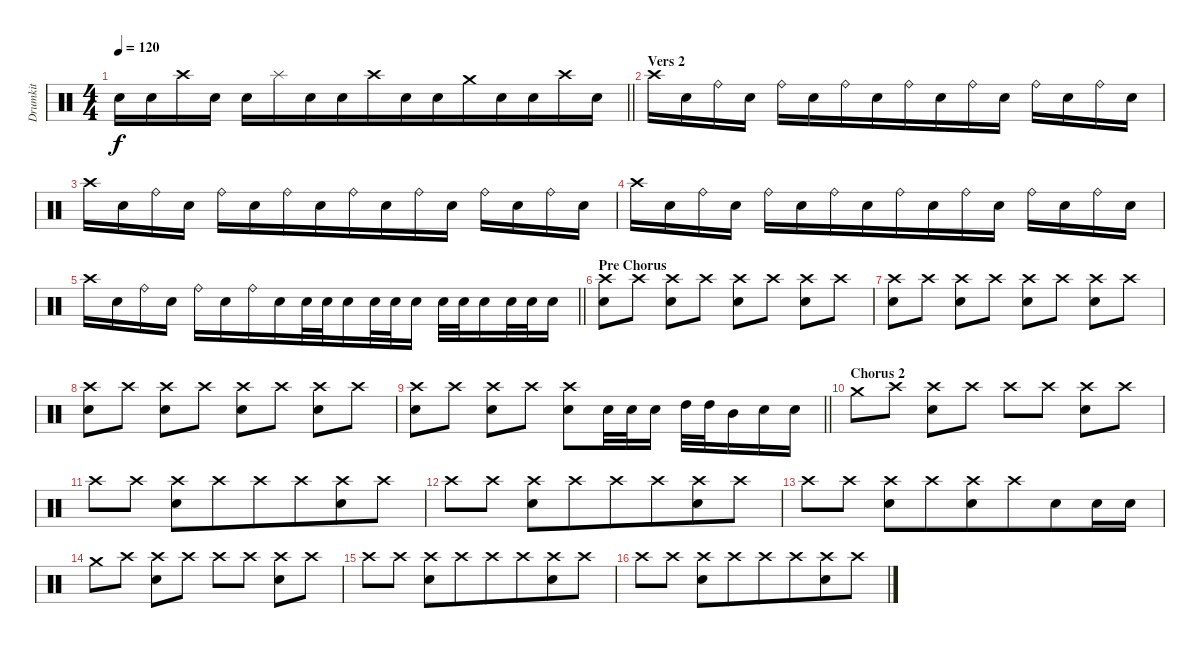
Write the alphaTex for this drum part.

\track ("Drumkit" "Drumkit") {instrument percussion}
\staff {score}
\articulation defaults
\ts (4 4)
\tempo 120
\clef neutral
\barLineRight lightlight
\ks c "Electric Snare (hit)".16{dy f beam merge} "Electric Snare (hit)".16{beam merge} "Crash high (hit)".16{beam merge} "Electric Snare (hit)".16 "Electric Snare (hit)".16 "Splash (hit)".16{beam merge} "Electric Snare (hit)".16{beam merge} "Electric Snare (hit)".16{beam merge} "Crash high (hit)".16 "Electric Snare (hit)".16 "Electric Snare (hit)".16{beam merge} "Crash medium (hit)".16{beam merge} "Electric Snare (hit)".16{beam merge} "Electric Snare (hit)".16 "Crash high (hit)".16 "Electric Snare (hit)".16
|
\section ("" "Vers 2")
"Crash high (hit)".16 "Electric Snare (hit)".16 "Ride (bell)".16 "Electric Snare (hit)".16 "Ride (bell)".16 "Electric Snare (hit)".16{beam merge} "Ride (bell)".16 "Electric Snare (hit)".16{beam merge} "Ride (bell)".16 "Electric Snare (hit)".16{beam merge} "Ride (bell)".16{beam merge} "Electric Snare (hit)".16 "Ride (bell)".16 "Electric Snare (hit)".16 "Ride (bell)".16 "Electric Snare (hit)".16 |
"Crash high (hit)".16 "Electric Snare (hit)".16 "Ride (bell)".16 "Electric Snare (hit)".16 "Ride (bell)".16 "Electric Snare (hit)".16{beam merge} "Ride (bell)".16 "Electric Snare (hit)".16{beam merge} "Ride (bell)".16 "Electric Snare (hit)".16{beam merge} "Ride (bell)".16{beam merge} "Electric Snare (hit)".16 "Ride (bell)".16 "Electric Snare (hit)".16 "Ride (bell)".16 "Electric Snare (hit)".16 |
"Crash high (hit)".16 "Electric Snare (hit)".16 "Ride (bell)".16 "Electric Snare (hit)".16 "Ride (bell)".16 "Electric Snare (hit)".16{beam merge} "Ride (bell)".16 "Electric Snare (hit)".16{beam merge} "Ride (bell)".16 "Electric Snare (hit)".16{beam merge} "Ride (bell)".16{beam merge} "Electric Snare (hit)".16 "Ride (bell)".16 "Electric Snare (hit)".16 "Ride (bell)".16 "Electric Snare (hit)".16 |
\barLineRight lightlight "Crash high (hit)".16 "Electric Snare (hit)".16 "Ride (bell)".16 "Electric Snare (hit)".16 "Ride (bell)".16 "Electric Snare (hit)".16{beam merge} "Ride (bell)".16 "Electric Snare (hit)".16{beam merge} "Electric Snare (hit)".32 "Electric Snare (hit)".32{beam merge} "Electric Snare (hit)".16{beam merge} "Electric Snare (hit)".32 "Electric Snare (hit)".32 "Electric Snare (hit)".16 "Electric Snare (hit)".32 "Electric Snare (hit)".32{beam merge} "Electric Snare (hit)".16 "Electric Snare (hit)".32 "Electric Snare (hit)".32{beam merge} "Electric Snare (hit)".16
|
\section ("" "Pre Chorus")
("Crash high (hit)" "Electric Snare (hit)").8 "Crash high (hit)".8 ("Crash high (hit)" "Electric Snare (hit)").8 "Crash high (hit)".8 ("Crash high (hit)" "Electric Snare (hit)").8 "Crash high (hit)".8 ("Crash high (hit)" "Electric Snare (hit)").8{beam merge} "Crash high (hit)".8 |
("Crash high (hit)" "Electric Snare (hit)").8 "Crash high (hit)".8 ("Crash high (hit)" "Electric Snare (hit)").8 "Crash high (hit)".8 ("Crash high (hit)" "Electric Snare (hit)").8 "Crash high (hit)".8 ("Crash high (hit)" "Electric Snare (hit)").8{beam merge} "Crash high (hit)".8 |
("Crash high (hit)" "Electric Snare (hit)").8 "Crash high (hit)".8 ("Crash high (hit)" "Electric Snare (hit)").8 "Crash high (hit)".8 ("Crash high (hit)" "Electric Snare (hit)").8 "Crash high (hit)".8 ("Crash high (hit)" "Electric Snare (hit)").8{beam merge} "Crash high (hit)".8 |
\barLineRight lightlight
("Crash high (hit)" "Electric Snare (hit)").8 "Crash high (hit)".8 ("Crash high (hit)" "Electric Snare (hit)").8 "Crash high (hit)".8 ("Crash high (hit)" "Electric Snare (hit)").8 "Electric Snare (hit)".32 "Electric Snare (hit)".32 "Electric Snare (hit)".16 "High Tom (hit)".32{beam merge} "High Tom (hit)".32{beam merge} "Mid Tom (hit)".16 "Electric Snare (hit)".16{beam merge} "Electric Snare (hit)".16 |
\section ("" "Chorus 2")
"Crash medium (hit)".8 "Crash high (hit)".8 ("Crash high (hit)" "Electric Snare (hit)").8{beam merge} "Crash high (hit)".8 "Crash high (hit)".8{beam merge} "Crash high (hit)".8 ("Crash high (hit)" "Electric Snare (hit)").8 "Crash high (hit)".8 |
"Crash high (hit)".8{beam merge} "Crash high (hit)".8 ("Crash high (hit)" "Electric Snare (hit)").8 "Crash high (hit)".8{beam merge} "Crash high (hit)".8 "Crash high (hit)".8{beam merge} ("Crash high (hit)" "Electric Snare (hit)").8 "Crash high (hit)".8 |
"Crash high (hit)".8{beam merge} "Crash high (hit)".8 ("Crash high (hit)" "Electric Snare (hit)").8 "Crash high (hit)".8{beam merge} "Crash high (hit)".8 "Crash high (hit)".8{beam merge} ("Crash high (hit)" "Electric Snare (hit)").8 "Crash high (hit)".8 |
"Crash high (hit)".8{beam merge} "Crash high (hit)".8 ("Crash high (hit)" "Electric Snare (hit)").8 "Crash high (hit)".8{beam merge} ("Crash high (hit)" "Electric Snare (hit)").8 "Crash high (hit)".8{beam merge} "Electric Snare (hit)".8 "Electric Snare (hit)".16 "Electric Snare (hit)".16 |
"Crash medium (hit)".8 "Crash high (hit)".8 ("Crash high (hit)" "Electric Snare (hit)").8{beam merge} "Crash high (hit)".8 "Crash high (hit)".8{beam merge} "Crash high (hit)".8 ("Crash high (hit)" "Electric Snare (hit)").8 "Crash high (hit)".8 |
"Crash high (hit)".8{beam merge} "Crash high (hit)".8 ("Crash high (hit)" "Electric Snare (hit)").8 "Crash high (hit)".8{beam merge} "Crash high (hit)".8 "Crash high (hit)".8{beam merge} ("Crash high (hit)" "Electric Snare (hit)").8 "Crash high (hit)".8 |
"Crash high (hit)".8{beam merge} "Crash high (hit)".8 ("Crash high (hit)" "Electric Snare (hit)").8 "Crash high (hit)".8{beam merge} "Crash high (hit)".8 "Crash high (hit)".8{beam merge} ("Crash high (hit)" "Electric Snare (hit)").8 "Crash high (hit)".8
